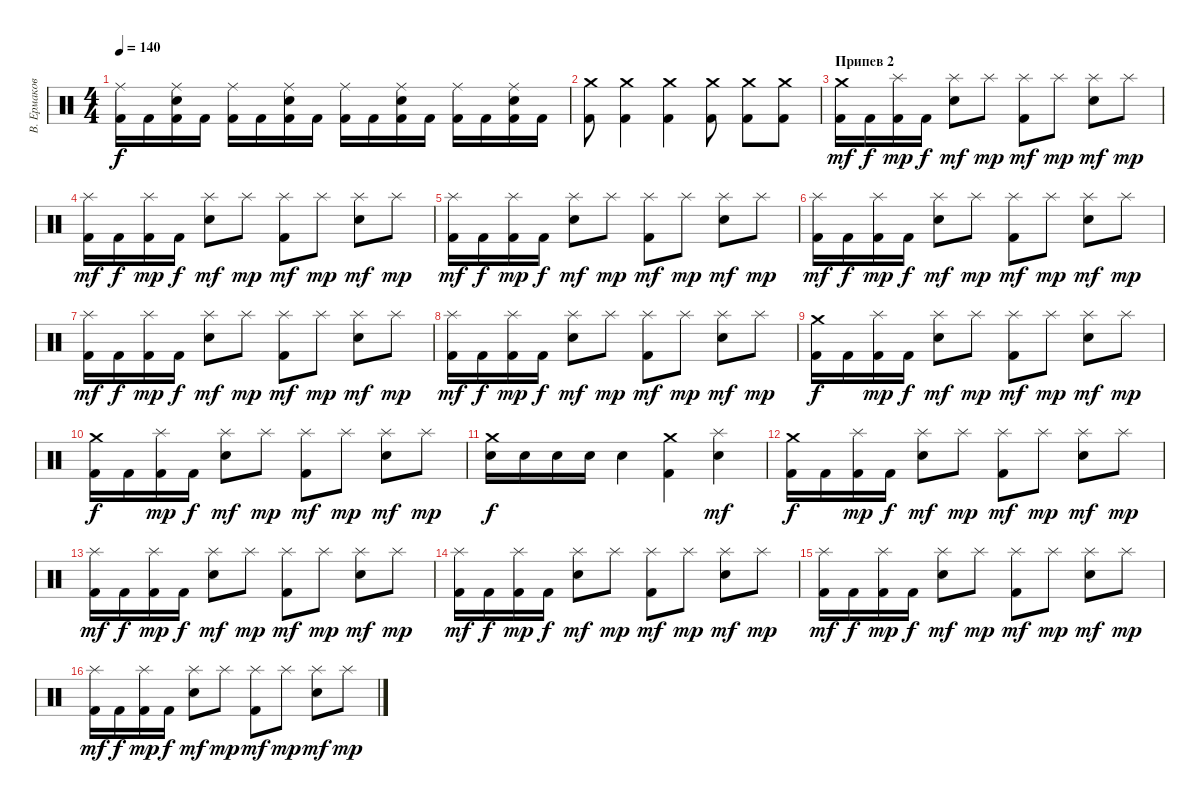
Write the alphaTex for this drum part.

\track ("В. Ермаков" "В. Ермаков") {instrument percussion}
\staff {score}
\articulation defaults
\ts (4 4)
\tempo 140
\clef neutral
\ks c
("Kick (hit) 2" "Ride (middle)").16{dy f} "Kick (hit) 2".16 ("Kick (hit) 2" "Electric Snare (hit)" "Ride (middle)").16 "Kick (hit) 2".16 ("Kick (hit) 2" "Ride (middle)").16 "Kick (hit) 2".16 ("Kick (hit) 2" "Electric Snare (hit)" "Ride (middle)").16 "Kick (hit) 2".16 ("Kick (hit) 2" "Ride (middle)").16 "Kick (hit) 2".16 ("Kick (hit) 2" "Electric Snare (hit)" "Ride (middle)").16 "Kick (hit) 2".16 ("Kick (hit) 2" "Ride (middle)").16 "Kick (hit) 2".16 ("Kick (hit) 2" "Electric Snare (hit)" "Ride (middle)").16 "Kick (hit) 2".16 |
("Crash medium (hit)" "Kick (hit) 2").8 ("Crash medium (hit)" "Kick (hit) 2").4 ("Crash medium (hit)" "Kick (hit) 2").4 ("Crash medium (hit)" "Kick (hit) 2").8 ("Crash medium (hit)" "Kick (hit) 2").8 ("Crash medium (hit)" "Kick (hit) 2").8 |
\section ("" "Припев 2")
("Kick (hit) 2" "Crash medium (hit)").16{dy mf} "Kick (hit) 2".16{dy f} ("Kick (hit) 2" "Splash (hit)").16{dy mp} "Kick (hit) 2".16{dy f} ("Electric Snare (hit)" "Splash (hit)").8{dy mf} "Splash (hit)".8{dy mp} ("Kick (hit) 2" "Splash (hit)").8{dy mf} "Splash (hit)".8{dy mp} ("Electric Snare (hit)" "Splash (hit)").8{dy mf} "Splash (hit)".8{dy mp} |
("Kick (hit) 2" "Splash (hit)").16{dy mf} "Kick (hit) 2".16{dy f} ("Kick (hit) 2" "Splash (hit)").16{dy mp} "Kick (hit) 2".16{dy f} ("Electric Snare (hit)" "Splash (hit)").8{dy mf} "Splash (hit)".8{dy mp} ("Kick (hit) 2" "Splash (hit)").8{dy mf} "Splash (hit)".8{dy mp} ("Electric Snare (hit)" "Splash (hit)").8{dy mf} "Splash (hit)".8{dy mp} |
("Kick (hit) 2" "Splash (hit)").16{dy mf} "Kick (hit) 2".16{dy f} ("Kick (hit) 2" "Splash (hit)").16{dy mp} "Kick (hit) 2".16{dy f} ("Electric Snare (hit)" "Splash (hit)").8{dy mf} "Splash (hit)".8{dy mp} ("Kick (hit) 2" "Splash (hit)").8{dy mf} "Splash (hit)".8{dy mp} ("Electric Snare (hit)" "Splash (hit)").8{dy mf} "Splash (hit)".8{dy mp} |
("Kick (hit) 2" "Splash (hit)").16{dy mf} "Kick (hit) 2".16{dy f} ("Kick (hit) 2" "Splash (hit)").16{dy mp} "Kick (hit) 2".16{dy f} ("Electric Snare (hit)" "Splash (hit)").8{dy mf} "Splash (hit)".8{dy mp} ("Kick (hit) 2" "Splash (hit)").8{dy mf} "Splash (hit)".8{dy mp} ("Electric Snare (hit)" "Splash (hit)").8{dy mf} "Splash (hit)".8{dy mp} |
("Kick (hit) 2" "Splash (hit)").16{dy mf} "Kick (hit) 2".16{dy f} ("Kick (hit) 2" "Splash (hit)").16{dy mp} "Kick (hit) 2".16{dy f} ("Electric Snare (hit)" "Splash (hit)").8{dy mf} "Splash (hit)".8{dy mp} ("Kick (hit) 2" "Splash (hit)").8{dy mf} "Splash (hit)".8{dy mp} ("Electric Snare (hit)" "Splash (hit)").8{dy mf} "Splash (hit)".8{dy mp} |
("Kick (hit) 2" "Splash (hit)").16{dy mf} "Kick (hit) 2".16{dy f} ("Kick (hit) 2" "Splash (hit)").16{dy mp} "Kick (hit) 2".16{dy f} ("Electric Snare (hit)" "Splash (hit)").8{dy mf} "Splash (hit)".8{dy mp} ("Kick (hit) 2" "Splash (hit)").8{dy mf} "Splash (hit)".8{dy mp} ("Electric Snare (hit)" "Splash (hit)").8{dy mf} "Splash (hit)".8{dy mp} |
("Kick (hit) 2" "Crash medium (hit)").16{dy f} "Kick (hit) 2".16 ("Kick (hit) 2" "Splash (hit)").16{dy mp} "Kick (hit) 2".16{dy f} ("Electric Snare (hit)" "Splash (hit)").8{dy mf} "Splash (hit)".8{dy mp} ("Kick (hit) 2" "Splash (hit)").8{dy mf} "Splash (hit)".8{dy mp} ("Electric Snare (hit)" "Splash (hit)").8{dy mf} "Splash (hit)".8{dy mp} |
("Kick (hit) 2" "Crash medium (hit)").16{dy f} "Kick (hit) 2".16 ("Kick (hit) 2" "Splash (hit)").16{dy mp} "Kick (hit) 2".16{dy f} ("Electric Snare (hit)" "Splash (hit)").8{dy mf} "Splash (hit)".8{dy mp} ("Kick (hit) 2" "Splash (hit)").8{dy mf} "Splash (hit)".8{dy mp} ("Electric Snare (hit)" "Splash (hit)").8{dy mf} "Splash (hit)".8{dy mp} |
("Electric Snare (hit)" "Crash medium (hit)").16{dy f} "Electric Snare (hit)".16 "Electric Snare (hit)".16 "Electric Snare (hit)".16 "Electric Snare (hit)".4 ("Kick (hit) 2" "Crash medium (hit)").4 ("Electric Snare (hit)" "Splash (hit)").4{dy mf} |
("Kick (hit) 2" "Crash medium (hit)").16{dy f} "Kick (hit) 2".16 ("Kick (hit) 2" "Splash (hit)").16{dy mp} "Kick (hit) 2".16{dy f} ("Electric Snare (hit)" "Splash (hit)").8{dy mf} "Splash (hit)".8{dy mp} ("Kick (hit) 2" "Splash (hit)").8{dy mf} "Splash (hit)".8{dy mp} ("Electric Snare (hit)" "Splash (hit)").8{dy mf} "Splash (hit)".8{dy mp} |
("Kick (hit) 2" "Splash (hit)").16{dy mf} "Kick (hit) 2".16{dy f} ("Kick (hit) 2" "Splash (hit)").16{dy mp} "Kick (hit) 2".16{dy f} ("Electric Snare (hit)" "Splash (hit)").8{dy mf} "Splash (hit)".8{dy mp} ("Kick (hit) 2" "Splash (hit)").8{dy mf} "Splash (hit)".8{dy mp} ("Electric Snare (hit)" "Splash (hit)").8{dy mf} "Splash (hit)".8{dy mp} |
("Kick (hit) 2" "Splash (hit)").16{dy mf} "Kick (hit) 2".16{dy f} ("Kick (hit) 2" "Splash (hit)").16{dy mp} "Kick (hit) 2".16{dy f} ("Electric Snare (hit)" "Splash (hit)").8{dy mf} "Splash (hit)".8{dy mp} ("Kick (hit) 2" "Splash (hit)").8{dy mf} "Splash (hit)".8{dy mp} ("Electric Snare (hit)" "Splash (hit)").8{dy mf} "Splash (hit)".8{dy mp} |
("Kick (hit) 2" "Splash (hit)").16{dy mf} "Kick (hit) 2".16{dy f} ("Kick (hit) 2" "Splash (hit)").16{dy mp} "Kick (hit) 2".16{dy f} ("Electric Snare (hit)" "Splash (hit)").8{dy mf} "Splash (hit)".8{dy mp} ("Kick (hit) 2" "Splash (hit)").8{dy mf} "Splash (hit)".8{dy mp} ("Electric Snare (hit)" "Splash (hit)").8{dy mf} "Splash (hit)".8{dy mp} |
("Kick (hit) 2" "Splash (hit)").16{dy mf} "Kick (hit) 2".16{dy f} ("Kick (hit) 2" "Splash (hit)").16{dy mp} "Kick (hit) 2".16{dy f} ("Electric Snare (hit)" "Splash (hit)").8{dy mf} "Splash (hit)".8{dy mp} ("Kick (hit) 2" "Splash (hit)").8{dy mf} "Splash (hit)".8{dy mp} ("Electric Snare (hit)" "Splash (hit)").8{dy mf} "Splash (hit)".8{dy mp}
